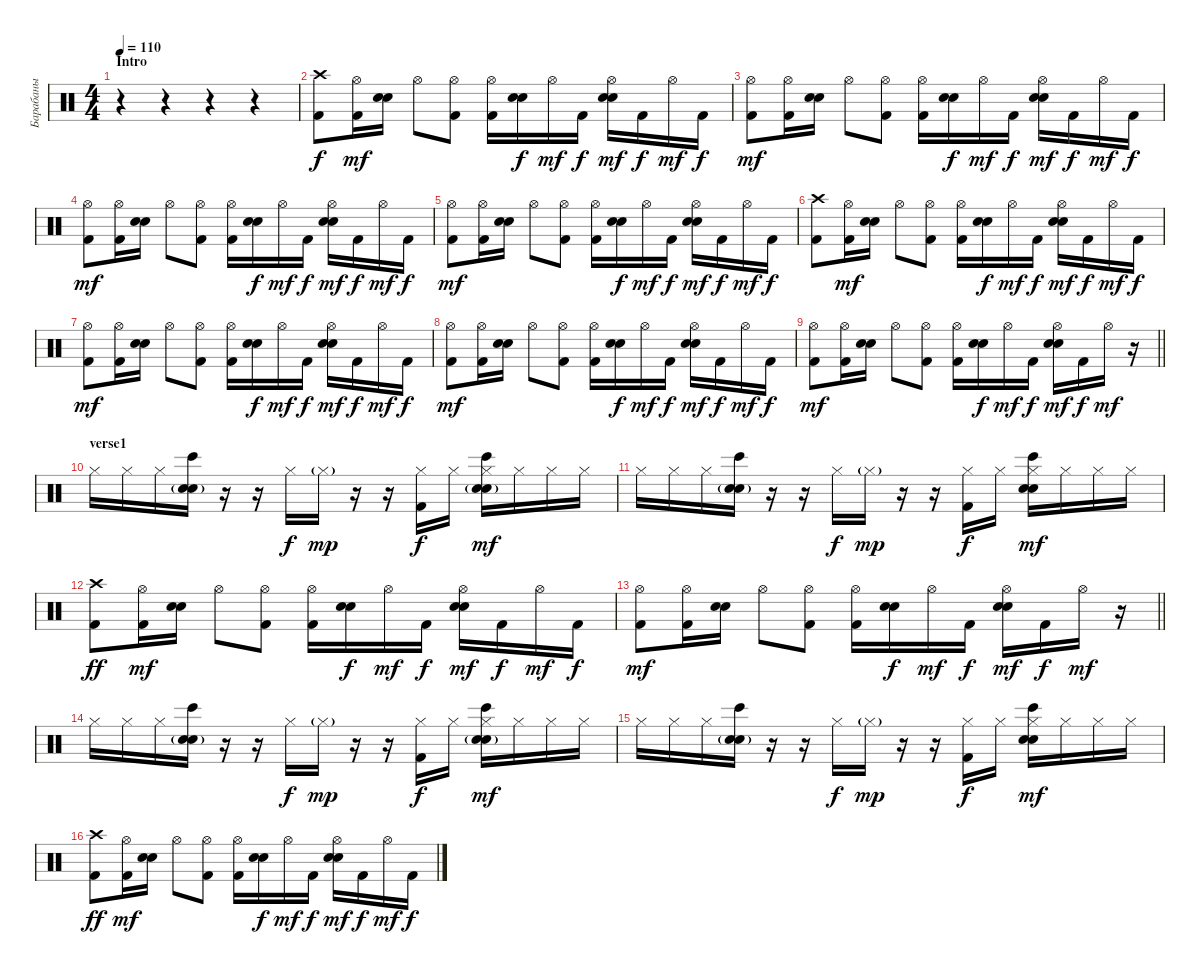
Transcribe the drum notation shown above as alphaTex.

\track ("Барабаны" "Барабаны") {instrument percussion}
\staff {score}
\articulation defaults
\ts (4 4)
\section ("" "Intro")
\tempo 110
\clef neutral
\ks c
r.4{dy f} r.4 r.4 r.4 |
("Crash high (hit)" "Kick (hit) 2").8 ("Hi-Hat (open)" "Kick (hit) 2").16{dy mf} ("Electric Snare (hit)" "Snare (hit) 2").16 "Hi-Hat (open)".8 ("Hi-Hat (open)" "Kick (hit) 2").8 ("Hi-Hat (open)" "Kick (hit) 2").16 ("Electric Snare (hit)" "Snare (hit) 2").16{dy f} "Hi-Hat (open)".16{dy mf} "Kick (hit) 2".16{dy f} ("Hi-Hat (open)" "Electric Snare (hit)" "Snare (hit) 2").16{dy mf} "Kick (hit) 2".16{dy f} "Hi-Hat (open)".16{dy mf} "Kick (hit) 2".16{dy f} |
("Hi-Hat (open)" "Kick (hit) 2").8{dy mf} ("Hi-Hat (open)" "Kick (hit) 2").16 ("Electric Snare (hit)" "Snare (hit) 2").16 "Hi-Hat (open)".8 ("Hi-Hat (open)" "Kick (hit) 2").8 ("Hi-Hat (open)" "Kick (hit) 2").16 ("Electric Snare (hit)" "Snare (hit) 2").16{dy f} "Hi-Hat (open)".16{dy mf} "Kick (hit) 2".16{dy f} ("Hi-Hat (open)" "Electric Snare (hit)" "Snare (hit) 2").16{dy mf} "Kick (hit) 2".16{dy f} "Hi-Hat (open)".16{dy mf} "Kick (hit) 2".16{dy f} |
("Hi-Hat (open)" "Kick (hit) 2").8{dy mf} ("Hi-Hat (open)" "Kick (hit) 2").16 ("Electric Snare (hit)" "Snare (hit) 2").16 "Hi-Hat (open)".8 ("Hi-Hat (open)" "Kick (hit) 2").8 ("Hi-Hat (open)" "Kick (hit) 2").16 ("Electric Snare (hit)" "Snare (hit) 2").16{dy f} "Hi-Hat (open)".16{dy mf} "Kick (hit) 2".16{dy f} ("Hi-Hat (open)" "Electric Snare (hit)" "Snare (hit) 2").16{dy mf} "Kick (hit) 2".16{dy f} "Hi-Hat (open)".16{dy mf} "Kick (hit) 2".16{dy f} |
("Hi-Hat (open)" "Kick (hit) 2").8{dy mf} ("Hi-Hat (open)" "Kick (hit) 2").16 ("Electric Snare (hit)" "Snare (hit) 2").16 "Hi-Hat (open)".8 ("Hi-Hat (open)" "Kick (hit) 2").8 ("Hi-Hat (open)" "Kick (hit) 2").16 ("Electric Snare (hit)" "Snare (hit) 2").16{dy f} "Hi-Hat (open)".16{dy mf} "Kick (hit) 2".16{dy f} ("Hi-Hat (open)" "Electric Snare (hit)" "Snare (hit) 2").16{dy mf} "Kick (hit) 2".16{dy f} "Hi-Hat (open)".16{dy mf} "Kick (hit) 2".16{dy f} |
("Crash high (hit)" "Kick (hit) 2").8 ("Hi-Hat (open)" "Kick (hit) 2").16{dy mf} ("Electric Snare (hit)" "Snare (hit) 2").16 "Hi-Hat (open)".8 ("Hi-Hat (open)" "Kick (hit) 2").8 ("Hi-Hat (open)" "Kick (hit) 2").16 ("Electric Snare (hit)" "Snare (hit) 2").16{dy f} "Hi-Hat (open)".16{dy mf} "Kick (hit) 2".16{dy f} ("Hi-Hat (open)" "Electric Snare (hit)" "Snare (hit) 2").16{dy mf} "Kick (hit) 2".16{dy f} "Hi-Hat (open)".16{dy mf} "Kick (hit) 2".16{dy f} |
("Hi-Hat (open)" "Kick (hit) 2").8{dy mf} ("Hi-Hat (open)" "Kick (hit) 2").16 ("Electric Snare (hit)" "Snare (hit) 2").16 "Hi-Hat (open)".8 ("Hi-Hat (open)" "Kick (hit) 2").8 ("Hi-Hat (open)" "Kick (hit) 2").16 ("Electric Snare (hit)" "Snare (hit) 2").16{dy f} "Hi-Hat (open)".16{dy mf} "Kick (hit) 2".16{dy f} ("Hi-Hat (open)" "Electric Snare (hit)" "Snare (hit) 2").16{dy mf} "Kick (hit) 2".16{dy f} "Hi-Hat (open)".16{dy mf} "Kick (hit) 2".16{dy f} |
("Hi-Hat (open)" "Kick (hit) 2").8{dy mf} ("Hi-Hat (open)" "Kick (hit) 2").16 ("Electric Snare (hit)" "Snare (hit) 2").16 "Hi-Hat (open)".8 ("Hi-Hat (open)" "Kick (hit) 2").8 ("Hi-Hat (open)" "Kick (hit) 2").16 ("Electric Snare (hit)" "Snare (hit) 2").16{dy f} "Hi-Hat (open)".16{dy mf} "Kick (hit) 2".16{dy f} ("Hi-Hat (open)" "Electric Snare (hit)" "Snare (hit) 2").16{dy mf} "Kick (hit) 2".16{dy f} "Hi-Hat (open)".16{dy mf} "Kick (hit) 2".16{dy f} |
\barLineRight lightlight
("Hi-Hat (open)" "Kick (hit) 2").8{dy mf} ("Hi-Hat (open)" "Kick (hit) 2").16 ("Electric Snare (hit)" "Snare (hit) 2").16 "Hi-Hat (open)".8 ("Hi-Hat (open)" "Kick (hit) 2").8 ("Hi-Hat (open)" "Kick (hit) 2").16 ("Electric Snare (hit)" "Snare (hit) 2").16{dy f} "Hi-Hat (open)".16{dy mf} "Kick (hit) 2".16{dy f} ("Hi-Hat (open)" "Electric Snare (hit)" "Snare (hit) 2").16{dy mf} "Kick (hit) 2".16{dy f} "Hi-Hat (open)".16{dy mf} r.16 |
\section ("" "verse1")
"Hi-Hat (closed)".16 "Hi-Hat (closed)".16 "Hi-Hat (closed)".16 ("Bongo High (hit)" "Electric Snare (hit)"{g} "Snare (hit) 2").16 r.16 r.16 "Hi-Hat (closed)".16{dy f} "Hi-Hat (closed)"{g}.16{dy mp} r.16 r.16 ("Hi-Hat (closed)" "Kick (hit) 2").16{dy f} "Hi-Hat (closed)".16 ("Hi-Hat (closed)" "Bongo High (hit)" "Electric Snare (hit)"{g} "Snare (hit) 2").16{dy mf} "Hi-Hat (closed)".16 "Hi-Hat (closed)".16 "Hi-Hat (closed)".16 |
"Hi-Hat (closed)".16 "Hi-Hat (closed)".16 "Hi-Hat (closed)".16 ("Bongo High (hit)" "Electric Snare (hit)"{g} "Snare (hit) 2").16 r.16 r.16 "Hi-Hat (closed)".16{dy f} "Hi-Hat (closed)"{g}.16{dy mp} r.16 r.16 ("Hi-Hat (closed)" "Kick (hit) 2").16{dy f} "Hi-Hat (closed)".16 ("Hi-Hat (closed)" "Bongo High (hit)" "Electric Snare (hit)" "Snare (hit) 2").16{dy mf} "Hi-Hat (closed)".16 "Hi-Hat (closed)".16 "Hi-Hat (closed)".16 |
("Crash high (hit)" "Kick (hit) 2").8{dy ff} ("Hi-Hat (open)" "Kick (hit) 2").16{dy mf} ("Electric Snare (hit)" "Snare (hit) 2").16 "Hi-Hat (open)".8 ("Hi-Hat (open)" "Kick (hit) 2").8 ("Hi-Hat (open)" "Kick (hit) 2").16 ("Electric Snare (hit)" "Snare (hit) 2").16{dy f} "Hi-Hat (open)".16{dy mf} "Kick (hit) 2".16{dy f} ("Hi-Hat (open)" "Electric Snare (hit)" "Snare (hit) 2").16{dy mf} "Kick (hit) 2".16{dy f} "Hi-Hat (open)".16{dy mf} "Kick (hit) 2".16{dy f} |
\barLineRight lightlight
("Hi-Hat (open)" "Kick (hit) 2").8{dy mf} ("Hi-Hat (open)" "Kick (hit) 2").16 ("Electric Snare (hit)" "Snare (hit) 2").16 "Hi-Hat (open)".8 ("Hi-Hat (open)" "Kick (hit) 2").8 ("Hi-Hat (open)" "Kick (hit) 2").16 ("Electric Snare (hit)" "Snare (hit) 2").16{dy f} "Hi-Hat (open)".16{dy mf} "Kick (hit) 2".16{dy f} ("Hi-Hat (open)" "Electric Snare (hit)" "Snare (hit) 2").16{dy mf} "Kick (hit) 2".16{dy f} "Hi-Hat (open)".16{dy mf} r.16 |
"Hi-Hat (closed)".16 "Hi-Hat (closed)".16 "Hi-Hat (closed)".16 ("Bongo High (hit)" "Electric Snare (hit)"{g} "Snare (hit) 2").16 r.16 r.16 "Hi-Hat (closed)".16{dy f} "Hi-Hat (closed)"{g}.16{dy mp} r.16 r.16 ("Hi-Hat (closed)" "Kick (hit) 2").16{dy f} "Hi-Hat (closed)".16 ("Hi-Hat (closed)" "Bongo High (hit)" "Electric Snare (hit)"{g} "Snare (hit) 2").16{dy mf} "Hi-Hat (closed)".16 "Hi-Hat (closed)".16 "Hi-Hat (closed)".16 |
"Hi-Hat (closed)".16 "Hi-Hat (closed)".16 "Hi-Hat (closed)".16 ("Bongo High (hit)" "Electric Snare (hit)"{g} "Snare (hit) 2").16 r.16 r.16 "Hi-Hat (closed)".16{dy f} "Hi-Hat (closed)"{g}.16{dy mp} r.16 r.16 ("Hi-Hat (closed)" "Kick (hit) 2").16{dy f} "Hi-Hat (closed)".16 ("Hi-Hat (closed)" "Bongo High (hit)" "Electric Snare (hit)" "Snare (hit) 2").16{dy mf} "Hi-Hat (closed)".16 "Hi-Hat (closed)".16 "Hi-Hat (closed)".16 |
("Crash high (hit)" "Kick (hit) 2").8{dy ff} ("Hi-Hat (open)" "Kick (hit) 2").16{dy mf} ("Electric Snare (hit)" "Snare (hit) 2").16 "Hi-Hat (open)".8 ("Hi-Hat (open)" "Kick (hit) 2").8 ("Hi-Hat (open)" "Kick (hit) 2").16 ("Electric Snare (hit)" "Snare (hit) 2").16{dy f} "Hi-Hat (open)".16{dy mf} "Kick (hit) 2".16{dy f} ("Hi-Hat (open)" "Electric Snare (hit)" "Snare (hit) 2").16{dy mf} "Kick (hit) 2".16{dy f} "Hi-Hat (open)".16{dy mf} "Kick (hit) 2".16{dy f}
